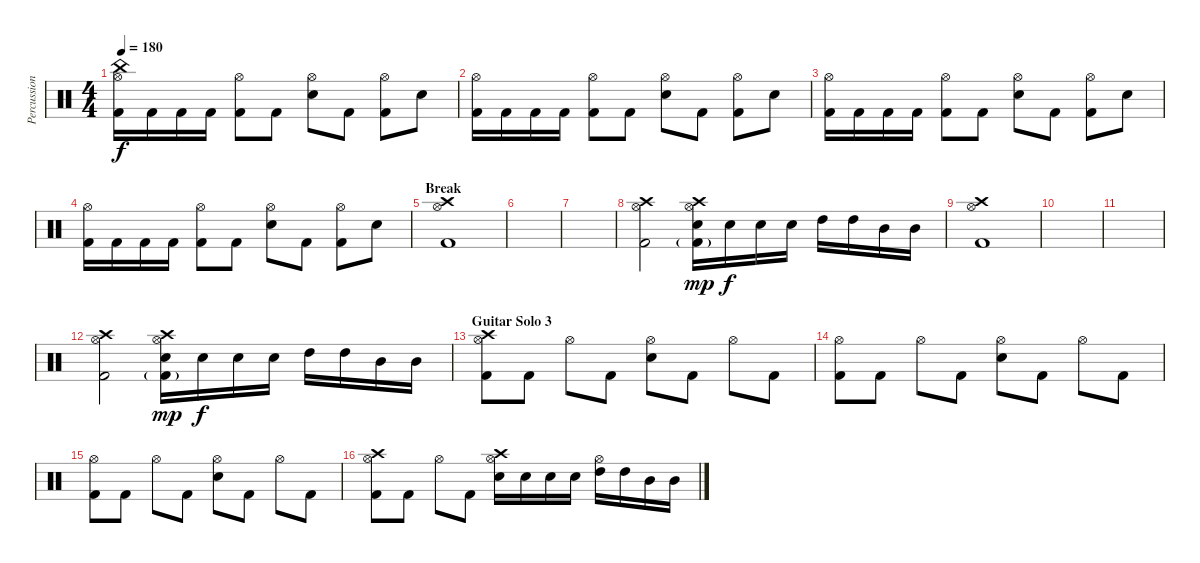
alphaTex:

\track ("Percussions" "Percussion") {instrument percussion}
\staff {score}
\articulation defaults
\ts (4 4)
\tempo 180
\clef neutral
\ks c
("China (hit)" "Hi-Hat (open)" "Kick (hit) 2").16{dy f} "Kick (hit) 2".16 "Kick (hit) 2".16 "Kick (hit) 2".16 ("Hi-Hat (open)" "Kick (hit) 2").8 "Kick (hit) 2".8 ("Hi-Hat (open)" "Electric Snare (hit)").8 "Kick (hit) 2".8 ("Hi-Hat (open)" "Kick (hit) 2").8 "Electric Snare (hit)".8 |
("Hi-Hat (open)" "Kick (hit) 2").16 "Kick (hit) 2".16 "Kick (hit) 2".16 "Kick (hit) 2".16 ("Hi-Hat (open)" "Kick (hit) 2").8 "Kick (hit) 2".8 ("Hi-Hat (open)" "Electric Snare (hit)").8 "Kick (hit) 2".8 ("Hi-Hat (open)" "Kick (hit) 2").8 "Electric Snare (hit)".8 |
("Hi-Hat (open)" "Kick (hit) 2").16 "Kick (hit) 2".16 "Kick (hit) 2".16 "Kick (hit) 2".16 ("Hi-Hat (open)" "Kick (hit) 2").8 "Kick (hit) 2".8 ("Hi-Hat (open)" "Electric Snare (hit)").8 "Kick (hit) 2".8 ("Hi-Hat (open)" "Kick (hit) 2").8 "Electric Snare (hit)".8 |
("Hi-Hat (open)" "Kick (hit) 2").16 "Kick (hit) 2".16 "Kick (hit) 2".16 "Kick (hit) 2".16 ("Hi-Hat (open)" "Kick (hit) 2").8 "Kick (hit) 2".8 ("Hi-Hat (open)" "Electric Snare (hit)").8 "Kick (hit) 2".8 ("Hi-Hat (open)" "Kick (hit) 2").8 "Electric Snare (hit)".8 |
\section ("" "Break")
("Crash high (hit)" "Hi-Hat (open)" "Kick (hit) 2").1 |
|
|
("Crash high (hit)" "Hi-Hat (open)" "Kick (hit) 2").2 ("Crash high (hit)" "Hi-Hat (open)" "Electric Snare (hit)" "Kick (hit) 2"{g}).16{dy mp} "Electric Snare (hit)".16{dy f} "Electric Snare (hit)".16 "Electric Snare (hit)".16 "High Tom (hit)".16 "High Tom (hit)".16 "Mid Tom (hit)".16 "Mid Tom (hit)".16 |
("Crash high (hit)" "Hi-Hat (open)" "Kick (hit) 2").1 |
|
|
("Crash high (hit)" "Hi-Hat (open)" "Kick (hit) 2").2 ("Crash high (hit)" "Hi-Hat (open)" "Electric Snare (hit)" "Kick (hit) 2"{g}).16{dy mp} "Electric Snare (hit)".16{dy f} "Electric Snare (hit)".16 "Electric Snare (hit)".16 "High Tom (hit)".16 "High Tom (hit)".16 "Mid Tom (hit)".16 "Mid Tom (hit)".16 |
\section ("" "Guitar Solo 3")
("Crash high (hit)" "Hi-Hat (open)" "Kick (hit) 2").8 "Kick (hit) 2".8 "Hi-Hat (open)".8 "Kick (hit) 2".8 ("Hi-Hat (open)" "Electric Snare (hit)").8 "Kick (hit) 2".8 "Hi-Hat (open)".8 "Kick (hit) 2".8 |
("Hi-Hat (open)" "Kick (hit) 2").8 "Kick (hit) 2".8 "Hi-Hat (open)".8 "Kick (hit) 2".8 ("Hi-Hat (open)" "Electric Snare (hit)").8 "Kick (hit) 2".8 "Hi-Hat (open)".8 "Kick (hit) 2".8 |
("Hi-Hat (open)" "Kick (hit) 2").8 "Kick (hit) 2".8 "Hi-Hat (open)".8 "Kick (hit) 2".8 ("Hi-Hat (open)" "Electric Snare (hit)").8 "Kick (hit) 2".8 "Hi-Hat (open)".8 "Kick (hit) 2".8 |
("Crash high (hit)" "Hi-Hat (open)" "Kick (hit) 2").8 "Kick (hit) 2".8 "Hi-Hat (open)".8 "Kick (hit) 2".8 ("Crash high (hit)" "Hi-Hat (open)" "Electric Snare (hit)").16 "Electric Snare (hit)".16 "Electric Snare (hit)".16 "Electric Snare (hit)".16 ("Hi-Hat (open)" "High Tom (hit)").16 "High Tom (hit)".16 "Mid Tom (hit)".16 "Mid Tom (hit)".16
